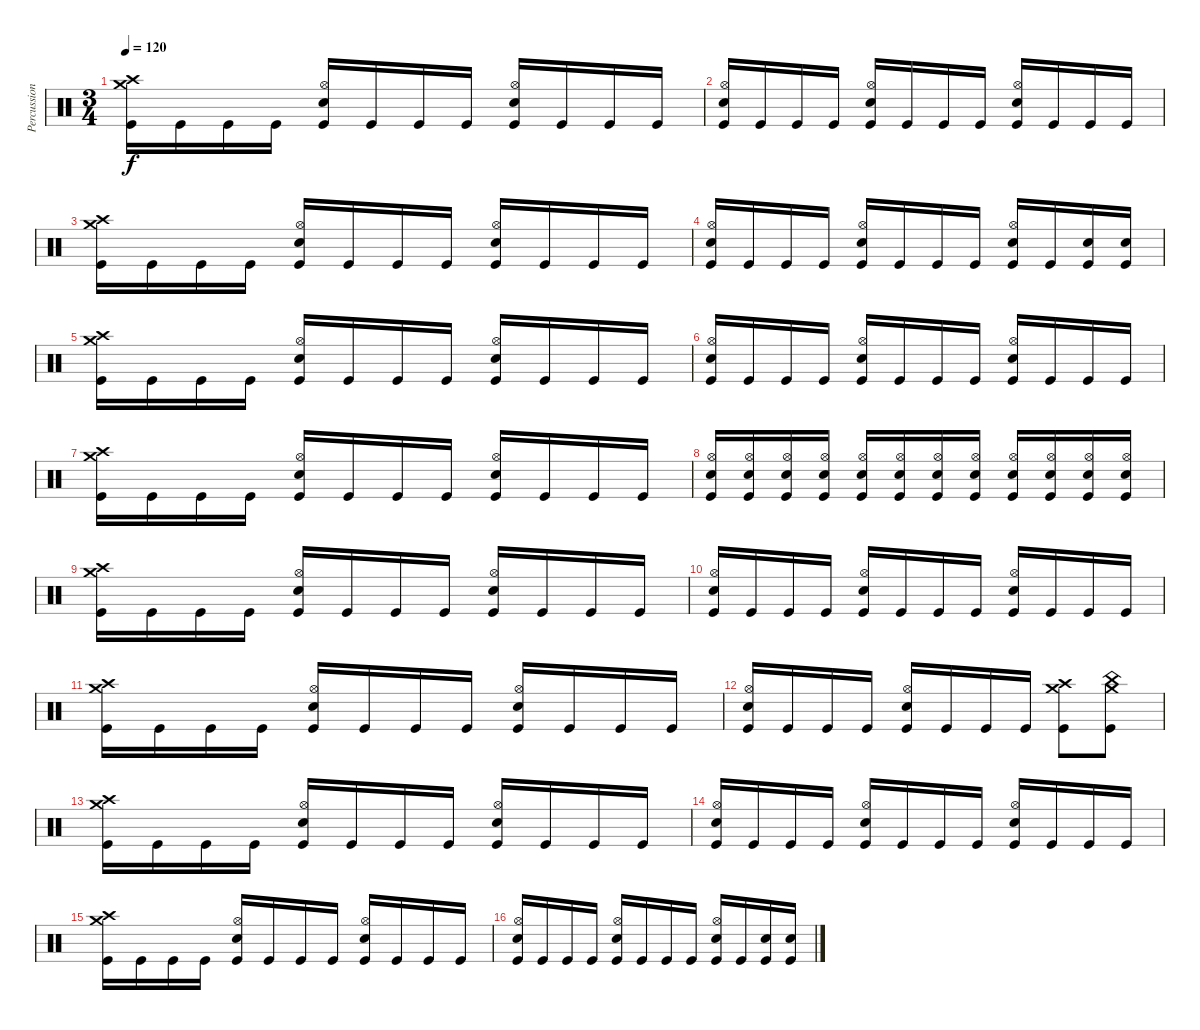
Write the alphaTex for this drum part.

\track ("Percussion" "Percussion") {instrument percussion}
\staff {score}
\articulation defaults
\ts (3 4)
\tempo 120
\clef neutral
\ks c
("Crash medium (hit)" "Crash high (hit)" "Kick (hit)").16{dy f} "Kick (hit)".16 "Kick (hit)".16 "Kick (hit)".16 ("Hi-Hat (open)" "Snare (hit) 2" "Kick (hit)").16 "Kick (hit)".16 "Kick (hit)".16 "Kick (hit)".16 ("Hi-Hat (open)" "Snare (hit) 2" "Kick (hit)").16 "Kick (hit)".16 "Kick (hit)".16 "Kick (hit)".16 |
("Hi-Hat (open)" "Snare (hit) 2" "Kick (hit)").16 "Kick (hit)".16 "Kick (hit)".16 "Kick (hit)".16 ("Hi-Hat (open)" "Snare (hit) 2" "Kick (hit)").16 "Kick (hit)".16 "Kick (hit)".16 "Kick (hit)".16 ("Hi-Hat (open)" "Snare (hit) 2" "Kick (hit)").16 "Kick (hit)".16 "Kick (hit)".16 "Kick (hit)".16 |
("Crash medium (hit)" "Crash high (hit)" "Kick (hit)").16 "Kick (hit)".16 "Kick (hit)".16 "Kick (hit)".16 ("Hi-Hat (open)" "Snare (hit) 2" "Kick (hit)").16 "Kick (hit)".16 "Kick (hit)".16 "Kick (hit)".16 ("Hi-Hat (open)" "Snare (hit) 2" "Kick (hit)").16 "Kick (hit)".16 "Kick (hit)".16 "Kick (hit)".16 |
("Hi-Hat (open)" "Snare (hit) 2" "Kick (hit)").16 "Kick (hit)".16 "Kick (hit)".16 "Kick (hit)".16 ("Hi-Hat (open)" "Snare (hit) 2" "Kick (hit)").16 "Kick (hit)".16 "Kick (hit)".16 "Kick (hit)".16 ("Hi-Hat (open)" "Snare (hit) 2" "Kick (hit)").16 "Kick (hit)".16 ("Snare (hit) 2" "Kick (hit)").16 ("Snare (hit) 2" "Kick (hit)").16 |
("Crash medium (hit)" "Crash high (hit)" "Kick (hit)").16 "Kick (hit)".16 "Kick (hit)".16 "Kick (hit)".16 ("Hi-Hat (open)" "Snare (hit) 2" "Kick (hit)").16 "Kick (hit)".16 "Kick (hit)".16 "Kick (hit)".16 ("Hi-Hat (open)" "Snare (hit) 2" "Kick (hit)").16 "Kick (hit)".16 "Kick (hit)".16 "Kick (hit)".16 |
("Hi-Hat (open)" "Snare (hit) 2" "Kick (hit)").16 "Kick (hit)".16 "Kick (hit)".16 "Kick (hit)".16 ("Hi-Hat (open)" "Snare (hit) 2" "Kick (hit)").16 "Kick (hit)".16 "Kick (hit)".16 "Kick (hit)".16 ("Hi-Hat (open)" "Snare (hit) 2" "Kick (hit)").16 "Kick (hit)".16 "Kick (hit)".16 "Kick (hit)".16 |
("Crash medium (hit)" "Crash high (hit)" "Kick (hit)").16 "Kick (hit)".16 "Kick (hit)".16 "Kick (hit)".16 ("Hi-Hat (open)" "Snare (hit) 2" "Kick (hit)").16 "Kick (hit)".16 "Kick (hit)".16 "Kick (hit)".16 ("Hi-Hat (open)" "Snare (hit) 2" "Kick (hit)").16 "Kick (hit)".16 "Kick (hit)".16 "Kick (hit)".16 |
("Hi-Hat (open)" "Snare (hit) 2" "Kick (hit)").16 ("Hi-Hat (open)" "Snare (hit) 2" "Kick (hit)").16 ("Hi-Hat (open)" "Snare (hit) 2" "Kick (hit)").16 ("Hi-Hat (open)" "Snare (hit) 2" "Kick (hit)").16 ("Hi-Hat (open)" "Snare (hit) 2" "Kick (hit)").16 ("Hi-Hat (open)" "Snare (hit) 2" "Kick (hit)").16 ("Hi-Hat (open)" "Snare (hit) 2" "Kick (hit)").16 ("Hi-Hat (open)" "Snare (hit) 2" "Kick (hit)").16 ("Hi-Hat (open)" "Snare (hit) 2" "Kick (hit)").16 ("Hi-Hat (open)" "Snare (hit) 2" "Kick (hit)").16 ("Hi-Hat (open)" "Snare (hit) 2" "Kick (hit)").16 ("Hi-Hat (open)" "Snare (hit) 2" "Kick (hit)").16 |
("Crash medium (hit)" "Crash high (hit)" "Kick (hit)").16 "Kick (hit)".16 "Kick (hit)".16 "Kick (hit)".16 ("Hi-Hat (open)" "Snare (hit) 2" "Kick (hit)").16 "Kick (hit)".16 "Kick (hit)".16 "Kick (hit)".16 ("Hi-Hat (open)" "Snare (hit) 2" "Kick (hit)").16 "Kick (hit)".16 "Kick (hit)".16 "Kick (hit)".16 |
("Hi-Hat (open)" "Snare (hit) 2" "Kick (hit)").16 "Kick (hit)".16 "Kick (hit)".16 "Kick (hit)".16 ("Hi-Hat (open)" "Snare (hit) 2" "Kick (hit)").16 "Kick (hit)".16 "Kick (hit)".16 "Kick (hit)".16 ("Hi-Hat (open)" "Snare (hit) 2" "Kick (hit)").16 "Kick (hit)".16 "Kick (hit)".16 "Kick (hit)".16 |
("Crash medium (hit)" "Crash high (hit)" "Kick (hit)").16 "Kick (hit)".16 "Kick (hit)".16 "Kick (hit)".16 ("Hi-Hat (open)" "Snare (hit) 2" "Kick (hit)").16 "Kick (hit)".16 "Kick (hit)".16 "Kick (hit)".16 ("Hi-Hat (open)" "Snare (hit) 2" "Kick (hit)").16 "Kick (hit)".16 "Kick (hit)".16 "Kick (hit)".16 |
("Hi-Hat (open)" "Snare (hit) 2" "Kick (hit)").16 "Kick (hit)".16 "Kick (hit)".16 "Kick (hit)".16 ("Hi-Hat (open)" "Snare (hit) 2" "Kick (hit)").16 "Kick (hit)".16 "Kick (hit)".16 "Kick (hit)".16 ("Crash medium (hit)" "Crash high (hit)" "Kick (hit)").8 ("Crash medium (hit)" "China (hit)" "Kick (hit)").8 |
("Crash medium (hit)" "Crash high (hit)" "Kick (hit)").16 "Kick (hit)".16 "Kick (hit)".16 "Kick (hit)".16 ("Hi-Hat (open)" "Snare (hit) 2" "Kick (hit)").16 "Kick (hit)".16 "Kick (hit)".16 "Kick (hit)".16 ("Hi-Hat (open)" "Snare (hit) 2" "Kick (hit)").16 "Kick (hit)".16 "Kick (hit)".16 "Kick (hit)".16 |
("Hi-Hat (open)" "Snare (hit) 2" "Kick (hit)").16 "Kick (hit)".16 "Kick (hit)".16 "Kick (hit)".16 ("Hi-Hat (open)" "Snare (hit) 2" "Kick (hit)").16 "Kick (hit)".16 "Kick (hit)".16 "Kick (hit)".16 ("Hi-Hat (open)" "Snare (hit) 2" "Kick (hit)").16 "Kick (hit)".16 "Kick (hit)".16 "Kick (hit)".16 |
("Crash medium (hit)" "Crash high (hit)" "Kick (hit)").16 "Kick (hit)".16 "Kick (hit)".16 "Kick (hit)".16 ("Hi-Hat (open)" "Snare (hit) 2" "Kick (hit)").16 "Kick (hit)".16 "Kick (hit)".16 "Kick (hit)".16 ("Hi-Hat (open)" "Snare (hit) 2" "Kick (hit)").16 "Kick (hit)".16 "Kick (hit)".16 "Kick (hit)".16 |
("Hi-Hat (open)" "Snare (hit) 2" "Kick (hit)").16 "Kick (hit)".16 "Kick (hit)".16 "Kick (hit)".16 ("Hi-Hat (open)" "Snare (hit) 2" "Kick (hit)").16 "Kick (hit)".16 "Kick (hit)".16 "Kick (hit)".16 ("Hi-Hat (open)" "Snare (hit) 2" "Kick (hit)").16 "Kick (hit)".16 ("Snare (hit) 2" "Kick (hit)").16 ("Snare (hit) 2" "Kick (hit)").16
